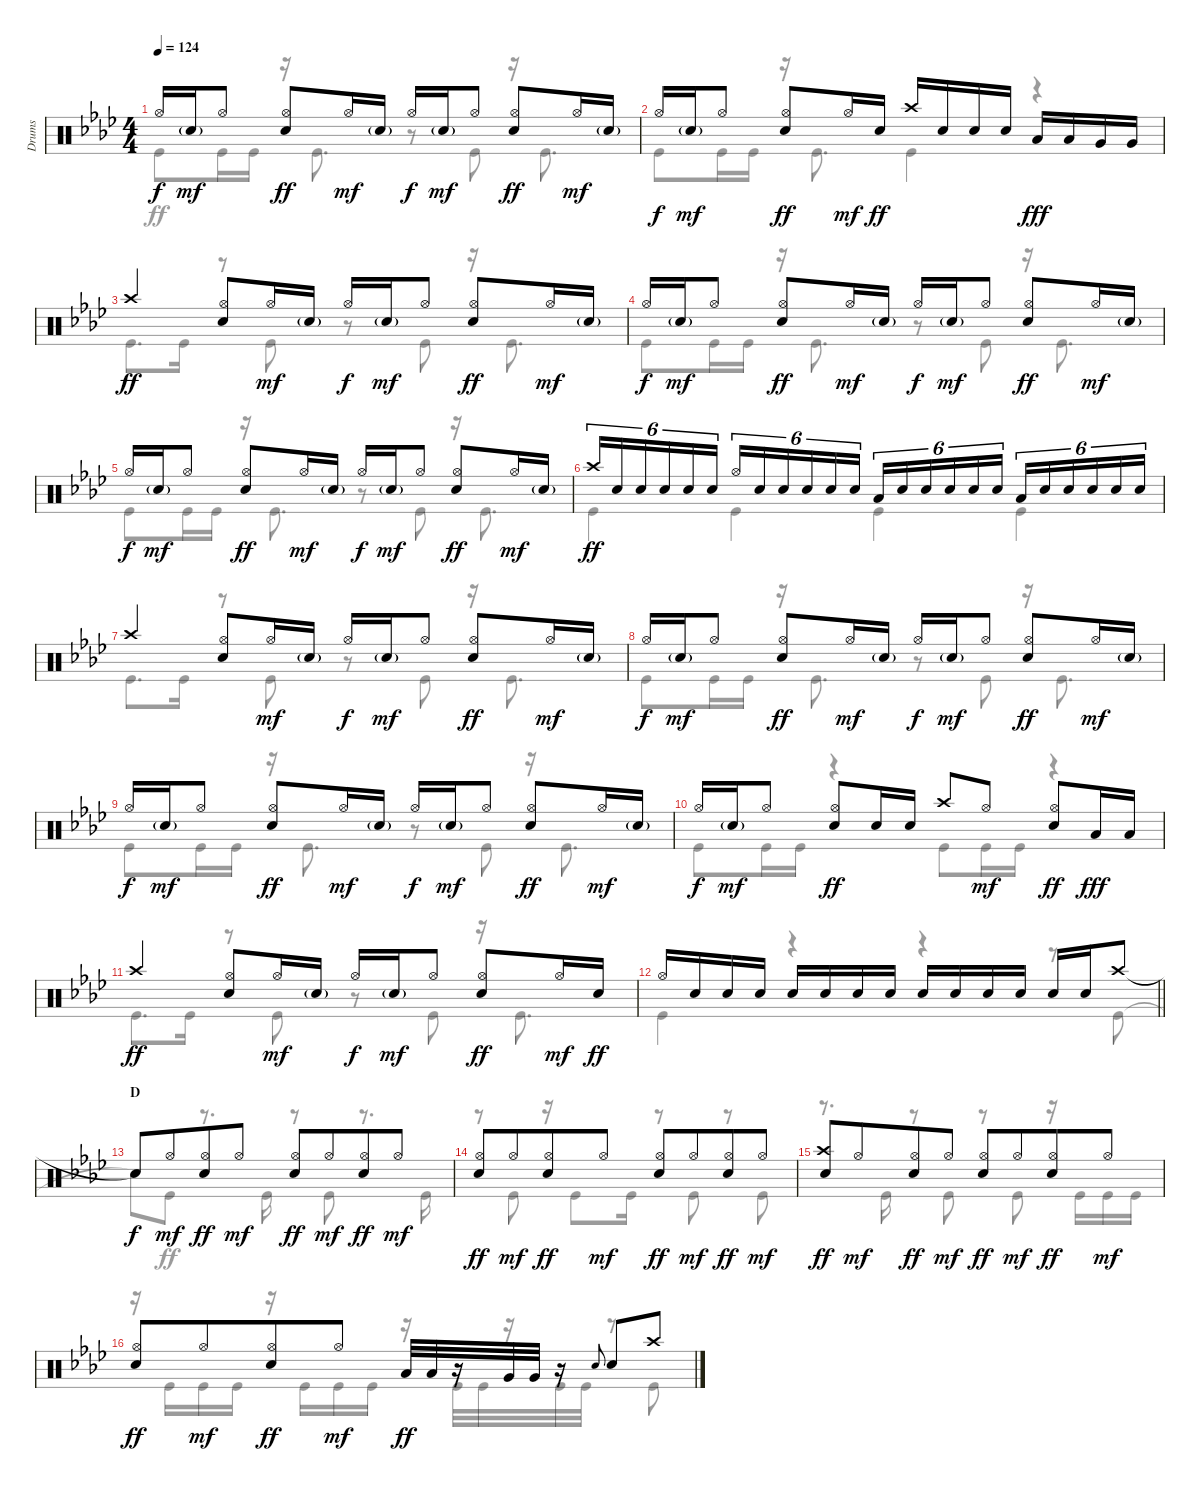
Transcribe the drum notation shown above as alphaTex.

\track ("Drums" "Drums") {solo instrument percussion}
\staff {score}
\articulation defaults
\voice
\ts (4 4)
\tempo 124
\clef neutral
\ks ab "Hi-Hat (open)".16{dy f} "Electric Snare (hit)"{g}.16{dy mf} "Hi-Hat (open)".8
("Hi-Hat (open)" "Electric Snare (hit)").8{dy ff} "Hi-Hat (open)".16{dy mf} "Electric Snare (hit)"{g}.16 "Hi-Hat (open)".16{dy f} "Electric Snare (hit)"{g}.16{dy mf} "Hi-Hat (open)".8 ("Hi-Hat (open)" "Electric Snare (hit)").8{dy ff} "Hi-Hat (open)".16{dy mf} "Electric Snare (hit)"{g}.16 |
"Hi-Hat (open)".16{dy f} "Electric Snare (hit)"{g}.16{dy mf} "Hi-Hat (open)".8 ("Hi-Hat (open)" "Electric Snare (hit)").8{dy ff} "Hi-Hat (open)".16{dy mf} "Electric Snare (hit)".16{dy ff} "Crash high (hit)".16 "Electric Snare (hit)".16 "Electric Snare (hit)".16 "Electric Snare (hit)".16 "Low Tom (hit)".16{dy fff} "Low Tom (hit)".16 "Very Low Tom (hit)".16 "Very Low Tom (hit)".16 |
"Crash high (hit)".4{dy ff} ("Hi-Hat (open)" "Electric Snare (hit)").8 "Hi-Hat (open)".16{dy mf} "Electric Snare (hit)"{g}.16 "Hi-Hat (open)".16{dy f} "Electric Snare (hit)"{g}.16{dy mf} "Hi-Hat (open)".8 ("Hi-Hat (open)" "Electric Snare (hit)").8{dy ff} "Hi-Hat (open)".16{dy mf} "Electric Snare (hit)"{g}.16 |
"Hi-Hat (open)".16{dy f} "Electric Snare (hit)"{g}.16{dy mf} "Hi-Hat (open)".8 ("Hi-Hat (open)" "Electric Snare (hit)").8{dy ff} "Hi-Hat (open)".16{dy mf} "Electric Snare (hit)"{g}.16 "Hi-Hat (open)".16{dy f} "Electric Snare (hit)"{g}.16{dy mf} "Hi-Hat (open)".8 ("Hi-Hat (open)" "Electric Snare (hit)").8{dy ff} "Hi-Hat (open)".16{dy mf} "Electric Snare (hit)"{g}.16 |
"Hi-Hat (open)".16{dy f} "Electric Snare (hit)"{g}.16{dy mf} "Hi-Hat (open)".8 ("Hi-Hat (open)" "Electric Snare (hit)").8{dy ff} "Hi-Hat (open)".16{dy mf} "Electric Snare (hit)"{g}.16 "Hi-Hat (open)".16{dy f} "Electric Snare (hit)"{g}.16{dy mf} "Hi-Hat (open)".8 ("Hi-Hat (open)" "Electric Snare (hit)").8{dy ff} "Hi-Hat (open)".16{dy mf} "Electric Snare (hit)"{g}.16 |
"Crash high (hit)".16{tu (6 4) dy ff} "Electric Snare (hit)".16{tu (6 4)} "Electric Snare (hit)".16{tu (6 4)} "Electric Snare (hit)".16{tu (6 4)} "Electric Snare (hit)".16{tu (6 4)} "Electric Snare (hit)".16{tu (6 4)} "Hi-Hat (open)".16{tu (6 4)} "Electric Snare (hit)".16{tu (6 4)} "Electric Snare (hit)".16{tu (6 4)} "Electric Snare (hit)".16{tu (6 4)} "Electric Snare (hit)".16{tu (6 4)} "Electric Snare (hit)".16{tu (6 4)} "Low Tom (hit)".16{tu (6 4)} "Electric Snare (hit)".16{tu (6 4)} "Electric Snare (hit)".16{tu (6 4)} "Electric Snare (hit)".16{tu (6 4)} "Electric Snare (hit)".16{tu (6 4)} "Electric Snare (hit)".16{tu (6 4)} "Low Tom (hit)".16{tu (6 4)} "Electric Snare (hit)".16{tu (6 4)} "Electric Snare (hit)".16{tu (6 4)} "Electric Snare (hit)".16{tu (6 4)} "Electric Snare (hit)".16{tu (6 4)} "Electric Snare (hit)".16{tu (6 4)} |
"Crash high (hit)".4 ("Hi-Hat (open)" "Electric Snare (hit)").8 "Hi-Hat (open)".16{dy mf} "Electric Snare (hit)"{g}.16 "Hi-Hat (open)".16{dy f} "Electric Snare (hit)"{g}.16{dy mf} "Hi-Hat (open)".8 ("Hi-Hat (open)" "Electric Snare (hit)").8{dy ff} "Hi-Hat (open)".16{dy mf} "Electric Snare (hit)"{g}.16 |
"Hi-Hat (open)".16{dy f} "Electric Snare (hit)"{g}.16{dy mf} "Hi-Hat (open)".8 ("Hi-Hat (open)" "Electric Snare (hit)").8{dy ff} "Hi-Hat (open)".16{dy mf} "Electric Snare (hit)"{g}.16 "Hi-Hat (open)".16{dy f} "Electric Snare (hit)"{g}.16{dy mf} "Hi-Hat (open)".8 ("Hi-Hat (open)" "Electric Snare (hit)").8{dy ff} "Hi-Hat (open)".16{dy mf} "Electric Snare (hit)"{g}.16 |
"Hi-Hat (open)".16{dy f} "Electric Snare (hit)"{g}.16{dy mf} "Hi-Hat (open)".8 ("Hi-Hat (open)" "Electric Snare (hit)").8{dy ff} "Hi-Hat (open)".16{dy mf} "Electric Snare (hit)"{g}.16 "Hi-Hat (open)".16{dy f} "Electric Snare (hit)"{g}.16{dy mf} "Hi-Hat (open)".8 ("Hi-Hat (open)" "Electric Snare (hit)").8{dy ff} "Hi-Hat (open)".16{dy mf} "Electric Snare (hit)"{g}.16 |
"Hi-Hat (open)".16{dy f} "Electric Snare (hit)"{g}.16{dy mf} "Hi-Hat (open)".8 ("Hi-Hat (open)" "Electric Snare (hit)").8{dy ff} "Electric Snare (hit)".16 "Electric Snare (hit)".16 "Crash high (hit)".8 "Hi-Hat (open)".8{dy mf} ("Hi-Hat (open)" "Electric Snare (hit)").8{dy ff} "Low Tom (hit)".16{dy fff} "Low Tom (hit)".16 |
"Crash high (hit)".4{dy ff} ("Hi-Hat (open)" "Electric Snare (hit)").8 "Hi-Hat (open)".16{dy mf} "Electric Snare (hit)"{g}.16 "Hi-Hat (open)".16{dy f} "Electric Snare (hit)"{g}.16{dy mf} "Hi-Hat (open)".8 ("Hi-Hat (open)" "Electric Snare (hit)").8{dy ff} "Hi-Hat (open)".16{dy mf} "Electric Snare (hit)".16{dy ff} |
\barLineRight lightlight "Hi-Hat (open)".16 "Electric Snare (hit)".16 "Electric Snare (hit)".16 "Electric Snare (hit)".16 "Electric Snare (hit)".16 "Electric Snare (hit)".16 "Electric Snare (hit)".16 "Electric Snare (hit)".16 "Electric Snare (hit)".16 "Electric Snare (hit)".16 "Electric Snare (hit)".16 "Electric Snare (hit)".16 "Electric Snare (hit)".16 "Electric Snare (hit)".16 "Crash high (hit)".8
|
\section ("" "D")
"Snare (hit)"{t}.8{dy f} "Hi-Hat (open)".8{dy mf beam merge} ("Hi-Hat (open)" "Electric Snare (hit)").8{dy ff} "Hi-Hat (open)".8{dy mf} ("Hi-Hat (open)" "Electric Snare (hit)").8{dy ff} "Hi-Hat (open)".8{dy mf beam merge} ("Hi-Hat (open)" "Electric Snare (hit)").8{dy ff} "Hi-Hat (open)".8{dy mf} |
("Hi-Hat (open)" "Electric Snare (hit)").8{dy ff} "Hi-Hat (open)".8{dy mf beam merge} ("Hi-Hat (open)" "Electric Snare (hit)").8{dy ff} "Hi-Hat (open)".8{dy mf} ("Hi-Hat (open)" "Electric Snare (hit)").8{dy ff} "Hi-Hat (open)".8{dy mf beam merge} ("Hi-Hat (open)" "Electric Snare (hit)").8{dy ff} "Hi-Hat (open)".8{dy mf} |
("Crash high (hit)" "Electric Snare (hit)").8{dy ff} "Hi-Hat (open)".8{dy mf beam merge} ("Hi-Hat (open)" "Electric Snare (hit)").8{dy ff} "Hi-Hat (open)".8{dy mf} ("Hi-Hat (open)" "Electric Snare (hit)").8{dy ff} "Hi-Hat (open)".8{dy mf beam merge} ("Hi-Hat (open)" "Electric Snare (hit)").8{dy ff} "Hi-Hat (open)".8{dy mf} |
("Hi-Hat (open)" "Electric Snare (hit)").8{dy ff} "Hi-Hat (open)".8{dy mf beam merge} ("Hi-Hat (open)" "Electric Snare (hit)").8{dy ff} "Hi-Hat (open)".8{dy mf} "Low Tom (hit)".32{dy ff} "Low Tom (hit)".32 r.16 "Very Low Tom (hit)".32 "Very Low Tom (hit)".32 r.16 "Electric Snare (hit)".8{gr onbeat} "Electric Snare (hit)".8 "Crash high (hit)".8
\voice
\clef neutral
\ottava regular
\simile none
\ks ab "Kick (hit)".8{dy ff} "Kick (hit)".16 "Kick (hit)".16
r.16 "Kick (hit)".8{d} r.8 "Kick (hit)".8 r.16 "Kick (hit)".8{d} |
"Kick (hit)".8 "Kick (hit)".16 "Kick (hit)".16 r.16 "Kick (hit)".8{d} "Kick (hit)".4 r.4 |
"Kick (hit)".8{d} "Kick (hit)".16 r.8 "Kick (hit)".8 r.8 "Kick (hit)".8 r.16 "Kick (hit)".8{d} |
"Kick (hit)".8 "Kick (hit)".16 "Kick (hit)".16 r.16 "Kick (hit)".8{d} r.8 "Kick (hit)".8 r.16 "Kick (hit)".8{d} |
"Kick (hit)".8 "Kick (hit)".16 "Kick (hit)".16 r.16 "Kick (hit)".8{d} r.8 "Kick (hit)".8 r.16 "Kick (hit)".8{d} |
"Kick (hit)".4 "Kick (hit)".4 "Kick (hit)".4 "Kick (hit)".4 |
"Kick (hit)".8{d} "Kick (hit)".16 r.8 "Kick (hit)".8 r.8 "Kick (hit)".8 r.16 "Kick (hit)".8{d} |
"Kick (hit)".8 "Kick (hit)".16 "Kick (hit)".16 r.16 "Kick (hit)".8{d} r.8 "Kick (hit)".8 r.16 "Kick (hit)".8{d} |
"Kick (hit)".8 "Kick (hit)".16 "Kick (hit)".16 r.16 "Kick (hit)".8{d} r.8 "Kick (hit)".8 r.16 "Kick (hit)".8{d} |
"Kick (hit)".8 "Kick (hit)".16 "Kick (hit)".16 r.4 "Kick (hit)".8 "Kick (hit)".16 "Kick (hit)".16 r.4 |
"Kick (hit)".8{d} "Kick (hit)".16 r.8 "Kick (hit)".8 r.8 "Kick (hit)".8 r.16 "Kick (hit)".8{d} |
\barLineRight lightlight "Kick (hit)".4
r.4 r.4 r.8 "Kick (hit)".8 |
"Snare (hit)"{t}.8{dy f} "Kick (hit)".8{dy ff} r.8{d} "Kick (hit)".16 r.8 "Kick (hit)".8 r.8{d} "Kick (hit)".16 |
r.8 "Kick (hit)".8 r.16 "Kick (hit)".8 "Kick (hit)".16 r.8 "Kick (hit)".8 r.8 "Kick (hit)".8 |
r.8{d} "Kick (hit)".16 r.8 "Kick (hit)".8 r.8 "Kick (hit)".8 r.16 "Kick (hit)".16 "Kick (hit)".16 "Kick (hit)".16 |
r.16 "Kick (hit)".16 "Kick (hit)".16 "Kick (hit)".16 r.16 "Kick (hit)".16 "Kick (hit)".16 "Kick (hit)".16 r.16 "Kick (hit)".32 "Kick (hit)".32 r.16 "Kick (hit)".32 "Kick (hit)".32 r.8 "Kick (hit)".8
